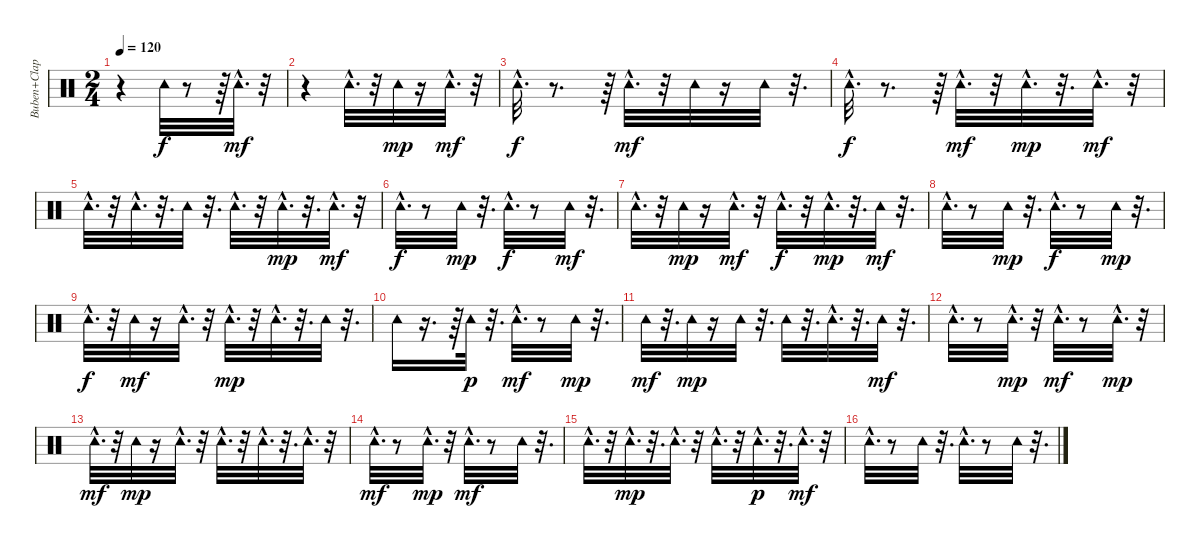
\track ("Buben+Clap" "Buben+Clap") {instrument percussion}
\staff {score}
\articulation defaults
\ts (2 4)
\tempo 120
\clef neutral
\ks c
r.4{dy f} "Tambourine (hit)".32 r.8 r.64 "Tambourine (hit)"{hac}.32{d dy mf} r.32 |
r.4 "Tambourine (hit)"{hac}.32{d} r.32 "Tambourine (hit)".32{dy mp} r.16 "Tambourine (hit)"{hac}.32{d dy mf} r.32 |
"Tambourine (hit)"{hac}.32{d dy f} r.8{d} r.64 "Tambourine (hit)"{hac}.32{d dy mf} r.32 "Tambourine (hit)".32 r.16 "Tambourine (hit)".32 r.32{d} |
"Tambourine (hit)"{hac}.32{d dy f} r.8{d} r.64 "Tambourine (hit)"{hac}.32{d dy mf} r.32 "Tambourine (hit)"{hac}.32{d dy mp} r.32{d} "Tambourine (hit)"{hac}.32{d dy mf} r.32 |
"Tambourine (hit)"{hac}.32{d} r.32 "Tambourine (hit)"{hac}.32{d} r.32{d} "Tambourine (hit)".32 r.32{d} "Tambourine (hit)"{hac}.32{d} r.32 "Tambourine (hit)"{hac}.32{d dy mp} r.32{d} "Tambourine (hit)"{hac}.32{d dy mf} r.32 |
"Tambourine (hit)"{hac}.32{d dy f} r.8 "Tambourine (hit)".32{dy mp} r.32{d} "Tambourine (hit)"{hac}.32{d dy f} r.8 "Tambourine (hit)".32{dy mf} r.32{d} |
"Tambourine (hit)"{hac}.32{d} r.32 "Tambourine (hit)".32{dy mp} r.16 "Tambourine (hit)"{hac}.32{d dy mf} r.32 "Tambourine (hit)"{hac}.32{d dy f} r.32 "Tambourine (hit)"{hac}.32{d dy mp} r.32{d} "Tambourine (hit)".32{dy mf} r.32{d} |
"Tambourine (hit)"{hac}.32{d} r.8 "Tambourine (hit)".32{dy mp} r.32{d} "Tambourine (hit)"{hac}.32{d dy f} r.8 "Tambourine (hit)".32{dy mp} r.32{d} |
"Tambourine (hit)"{hac}.32{d dy f} r.32 "Tambourine (hit)".32{dy mf} r.16 "Tambourine (hit)"{hac}.32{d} r.32 "Tambourine (hit)"{hac}.32{d dy mp} r.32 "Tambourine (hit)"{hac}.32{d} r.32{d} "Tambourine (hit)".32 r.32{d} |
"Tambourine (hit)".16 r.16{d} r.64 "Tambourine (hit)".32{dy p} r.32{d} "Tambourine (hit)"{hac}.32{d dy mf} r.8 "Tambourine (hit)".32{dy mp} r.32{d} |
"Tambourine (hit)".32{dy mf} r.32{d} "Tambourine (hit)".32{dy mp} r.16 "Tambourine (hit)".32 r.32{d} "Tambourine (hit)".32 r.32{d} "Tambourine (hit)"{hac}.32{d} r.32{d} "Tambourine (hit)".32{dy mf} r.32{d} |
"Tambourine (hit)"{hac}.32{d} r.8 "Tambourine (hit)"{hac}.32{d dy mp} r.32 "Tambourine (hit)"{hac}.32{d dy mf} r.8 "Tambourine (hit)"{hac}.32{d dy mp} r.32 |
"Tambourine (hit)"{hac}.32{d dy mf} r.32 "Tambourine (hit)".32{dy mp} r.16 "Tambourine (hit)"{hac}.32{d} r.32 "Tambourine (hit)"{hac}.32{d} r.32 "Tambourine (hit)"{hac}.32{d} r.32{d} "Tambourine (hit)"{hac}.32{d} r.32 |
"Tambourine (hit)"{hac}.32{d dy mf} r.8 "Tambourine (hit)"{hac}.32{d dy mp} r.32 "Tambourine (hit)"{hac}.32{d dy mf} r.8 "Tambourine (hit)".32 r.32{d} |
"Tambourine (hit)"{hac}.32{d} r.32 "Tambourine (hit)"{hac}.32{d dy mp} r.32{d} "Tambourine (hit)"{hac}.32{d} r.32 "Tambourine (hit)"{hac}.32{d} r.32 "Tambourine (hit)"{hac}.32{d dy p} r.32{d} "Tambourine (hit)"{hac}.32{d dy mf} r.32 |
"Tambourine (hit)"{hac}.32{d} r.8 "Tambourine (hit)".32 r.32{d} "Tambourine (hit)"{hac}.32{d} r.8 "Tambourine (hit)".32 r.32{d}
